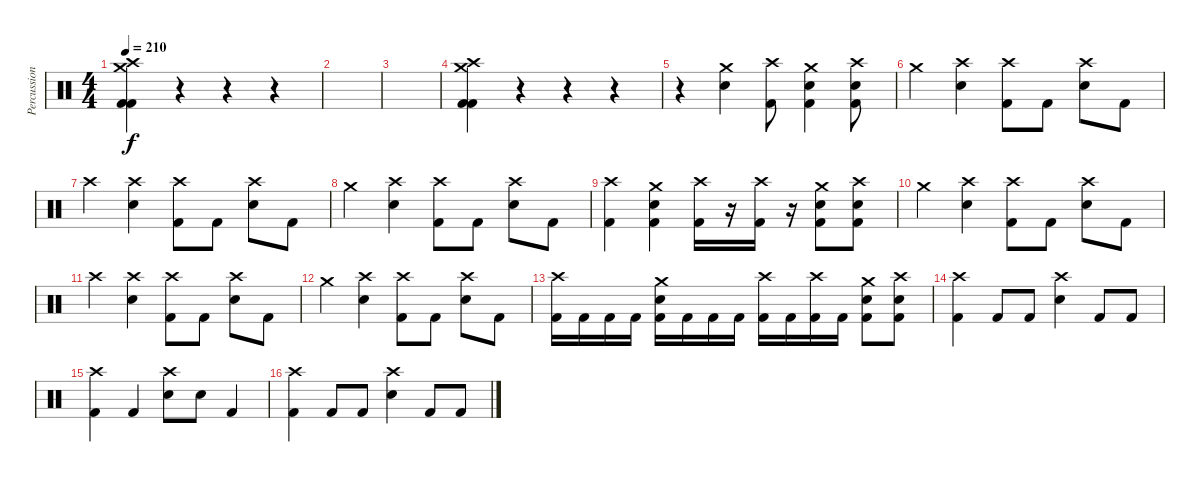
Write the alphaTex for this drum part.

\track ("Percussion" "Percussion") {instrument percussion}
\staff {score}
\articulation defaults
\ts (4 4)
\tempo 210
\clef neutral
\ks c
("Crash medium (hit)" "Crash high (hit)" "Kick (hit) 2" "Kick (hit) 2").4{dy f} r.4 r.4 r.4 |
|
|
("Crash medium (hit)" "Crash high (hit)" "Kick (hit) 2" "Kick (hit) 2").4 r.4 r.4 r.4 |
r.4 ("Crash medium (hit)" "Electric Snare (hit)").4 ("Crash high (hit)" "Kick (hit) 2").8 ("Crash medium (hit)" "Electric Snare (hit)" "Kick (hit) 2").4 ("Crash high (hit)" "Electric Snare (hit)" "Kick (hit) 2").8 |
"Crash medium (hit)".4 ("Crash high (hit)" "Electric Snare (hit)").4 ("Crash high (hit)" "Kick (hit) 2").8 "Kick (hit) 2".8 ("Crash high (hit)" "Electric Snare (hit)").8 "Kick (hit) 2".8 |
"Crash high (hit)".4 ("Crash high (hit)" "Electric Snare (hit)").4 ("Crash high (hit)" "Kick (hit) 2").8 "Kick (hit) 2".8 ("Crash high (hit)" "Electric Snare (hit)").8 "Kick (hit) 2".8 |
"Crash medium (hit)".4 ("Crash high (hit)" "Electric Snare (hit)").4 ("Crash high (hit)" "Kick (hit) 2").8 "Kick (hit) 2".8 ("Crash high (hit)" "Electric Snare (hit)").8 "Kick (hit) 2".8 |
("Crash high (hit)" "Kick (hit) 2").4 ("Crash medium (hit)" "Electric Snare (hit)" "Kick (hit) 2").4 ("Crash high (hit)" "Kick (hit) 2").16 r.16 ("Crash high (hit)" "Kick (hit) 2").16 r.16 ("Crash medium (hit)" "Electric Snare (hit)" "Kick (hit) 2").8 ("Crash high (hit)" "Electric Snare (hit)" "Kick (hit) 2").8 |
"Crash medium (hit)".4 ("Crash high (hit)" "Electric Snare (hit)").4 ("Crash high (hit)" "Kick (hit) 2").8 "Kick (hit) 2".8 ("Crash high (hit)" "Electric Snare (hit)").8 "Kick (hit) 2".8 |
"Crash high (hit)".4 ("Crash high (hit)" "Electric Snare (hit)").4 ("Crash high (hit)" "Kick (hit) 2").8 "Kick (hit) 2".8 ("Crash high (hit)" "Electric Snare (hit)").8 "Kick (hit) 2".8 |
"Crash medium (hit)".4 ("Crash high (hit)" "Electric Snare (hit)").4 ("Crash high (hit)" "Kick (hit) 2").8 "Kick (hit) 2".8 ("Crash high (hit)" "Electric Snare (hit)").8 "Kick (hit) 2".8 |
("Crash high (hit)" "Kick (hit) 2").16 "Kick (hit) 2".16 "Kick (hit) 2".16 "Kick (hit) 2".16 ("Crash medium (hit)" "Electric Snare (hit)" "Kick (hit) 2").16 "Kick (hit) 2".16 "Kick (hit) 2".16 "Kick (hit) 2".16 ("Crash high (hit)" "Kick (hit) 2").16 "Kick (hit) 2".16 ("Crash high (hit)" "Kick (hit) 2").16 "Kick (hit) 2".16 ("Crash medium (hit)" "Electric Snare (hit)" "Kick (hit) 2").8 ("Crash high (hit)" "Electric Snare (hit)" "Kick (hit) 2").8 |
("Crash high (hit)" "Kick (hit) 2").4 "Kick (hit) 2".8 "Kick (hit) 2".8 ("Crash high (hit)" "Electric Snare (hit)").4 "Kick (hit) 2".8 "Kick (hit) 2".8 |
("Crash high (hit)" "Kick (hit) 2").4 "Kick (hit) 2".4 ("Crash high (hit)" "Electric Snare (hit)").8 "Electric Snare (hit)".8 "Kick (hit) 2".4 |
("Crash high (hit)" "Kick (hit) 2").4 "Kick (hit) 2".8 "Kick (hit) 2".8 ("Crash high (hit)" "Electric Snare (hit)").4 "Kick (hit) 2".8 "Kick (hit) 2".8
